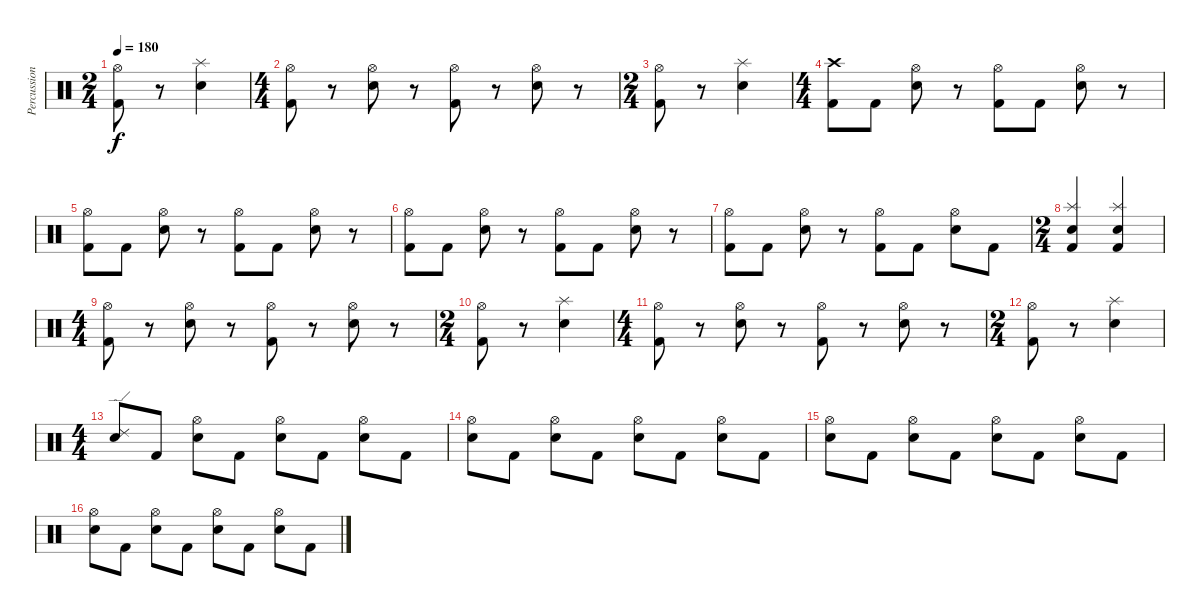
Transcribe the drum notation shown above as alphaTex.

\track ("Percussion" "Percussion") {instrument percussion}
\staff {score}
\articulation defaults
\ts (2 4)
\tempo 180
\clef neutral
\ks c
("Hi-Hat (open)" "Kick (hit) 2").8{dy f} r.8 ("Splash (hit)" "Electric Snare (hit)").4 |
\ts (4 4)
("Hi-Hat (open)" "Kick (hit) 2").8 r.8 ("Hi-Hat (open)" "Electric Snare (hit)").8 r.8 ("Hi-Hat (open)" "Kick (hit) 2").8 r.8 ("Hi-Hat (open)" "Electric Snare (hit)").8 r.8 |
\ts (2 4)
("Hi-Hat (open)" "Kick (hit) 2").8 r.8 ("Splash (hit)" "Electric Snare (hit)").4 |
\ts (4 4)
("Crash high (hit)" "Kick (hit) 2").8 "Kick (hit) 2".8 ("Hi-Hat (open)" "Electric Snare (hit)").8 r.8 ("Hi-Hat (open)" "Kick (hit) 2").8 "Kick (hit) 2".8 ("Hi-Hat (open)" "Electric Snare (hit)").8 r.8 |
("Hi-Hat (open)" "Kick (hit) 2").8 "Kick (hit) 2".8 ("Hi-Hat (open)" "Electric Snare (hit)").8 r.8 ("Hi-Hat (open)" "Kick (hit) 2").8 "Kick (hit) 2".8 ("Hi-Hat (open)" "Electric Snare (hit)").8 r.8 |
("Hi-Hat (open)" "Kick (hit) 2").8 "Kick (hit) 2".8 ("Hi-Hat (open)" "Electric Snare (hit)").8 r.8 ("Hi-Hat (open)" "Kick (hit) 2").8 "Kick (hit) 2".8 ("Hi-Hat (open)" "Electric Snare (hit)").8 r.8 |
("Hi-Hat (open)" "Kick (hit) 2").8 "Kick (hit) 2".8 ("Hi-Hat (open)" "Electric Snare (hit)").8 r.8 ("Hi-Hat (open)" "Kick (hit) 2").8 "Kick (hit) 2".8 ("Hi-Hat (open)" "Electric Snare (hit)").8 "Kick (hit) 2".8 |
\ts (2 4)
("Splash (hit)" "Electric Snare (hit)" "Kick (hit) 2").4 ("Splash (hit)" "Electric Snare (hit)" "Kick (hit) 2").4 |
\ts (4 4)
("Hi-Hat (open)" "Kick (hit) 2").8 r.8 ("Hi-Hat (open)" "Electric Snare (hit)").8 r.8 ("Hi-Hat (open)" "Kick (hit) 2").8 r.8 ("Hi-Hat (open)" "Electric Snare (hit)").8 r.8 |
\ts (2 4)
("Hi-Hat (open)" "Kick (hit) 2").8 r.8 ("Splash (hit)" "Electric Snare (hit)").4 |
\ts (4 4)
("Hi-Hat (open)" "Kick (hit) 2").8 r.8 ("Hi-Hat (open)" "Electric Snare (hit)").8 r.8 ("Hi-Hat (open)" "Kick (hit) 2").8 r.8 ("Hi-Hat (open)" "Electric Snare (hit)").8 r.8 |
\ts (2 4)
("Hi-Hat (open)" "Kick (hit) 2").8 r.8 ("Splash (hit)" "Electric Snare (hit)").4 |
\ts (4 4)
("Ride (edge) 2" "Electric Snare (hit)").8 "Kick (hit) 2".8 ("Hi-Hat (open)" "Electric Snare (hit)").8 "Kick (hit) 2".8 ("Hi-Hat (open)" "Electric Snare (hit)").8 "Kick (hit) 2".8 ("Hi-Hat (open)" "Electric Snare (hit)").8 "Kick (hit) 2".8 |
("Hi-Hat (open)" "Electric Snare (hit)").8 "Kick (hit) 2".8 ("Hi-Hat (open)" "Electric Snare (hit)").8 "Kick (hit) 2".8 ("Hi-Hat (open)" "Electric Snare (hit)").8 "Kick (hit) 2".8 ("Hi-Hat (open)" "Electric Snare (hit)").8 "Kick (hit) 2".8 |
("Hi-Hat (open)" "Electric Snare (hit)").8 "Kick (hit) 2".8 ("Hi-Hat (open)" "Electric Snare (hit)").8 "Kick (hit) 2".8 ("Hi-Hat (open)" "Electric Snare (hit)").8 "Kick (hit) 2".8 ("Hi-Hat (open)" "Electric Snare (hit)").8 "Kick (hit) 2".8 |
("Hi-Hat (open)" "Electric Snare (hit)").8 "Kick (hit) 2".8 ("Hi-Hat (open)" "Electric Snare (hit)").8 "Kick (hit) 2".8 ("Hi-Hat (open)" "Electric Snare (hit)").8 "Kick (hit) 2".8 ("Hi-Hat (open)" "Electric Snare (hit)").8 "Kick (hit) 2".8
